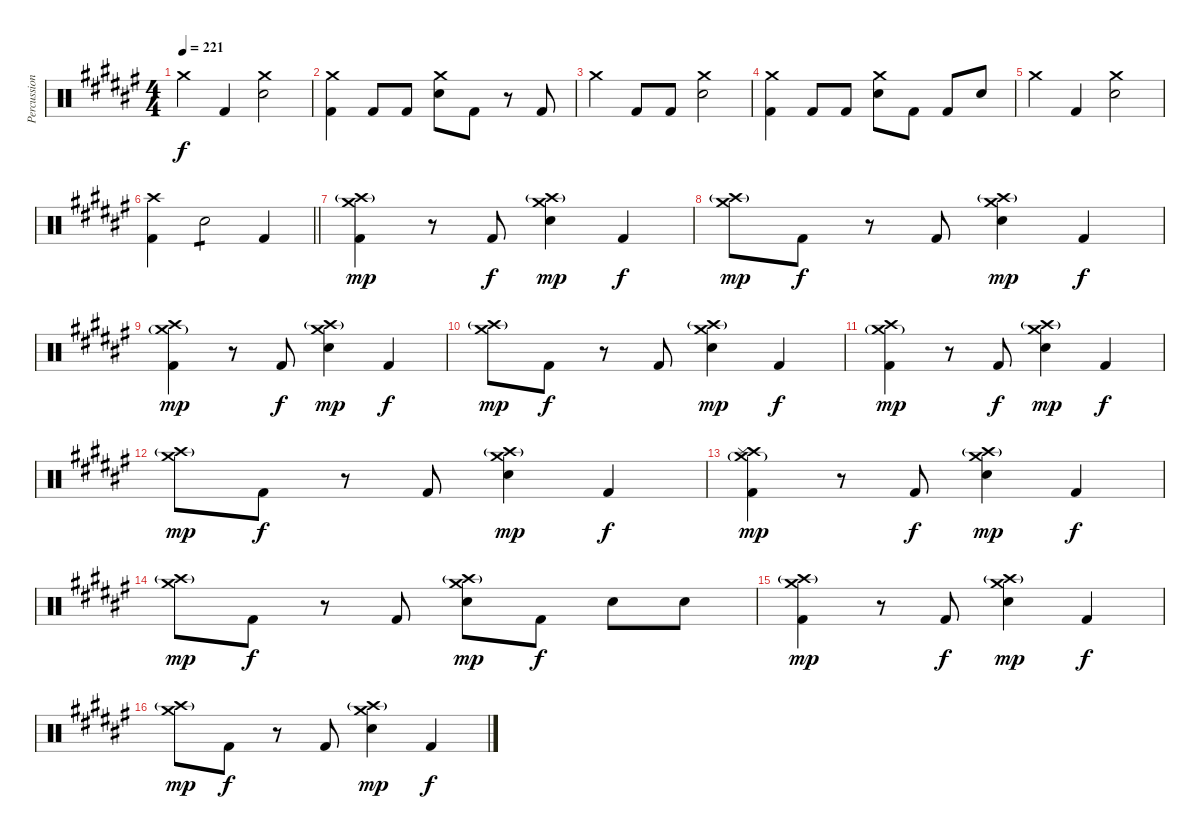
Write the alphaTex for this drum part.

\track ("Percussions" "Percussion") {instrument percussion}
\staff {score}
\articulation defaults
\ts (4 4)
\tempo 221
\clef neutral
\ks d#minor "Crash medium (hit)".4{dy f} "Kick (hit) 2".4
("Crash medium (hit)" "Electric Snare (hit)").2 |
("Crash medium (hit)" "Kick (hit) 2").4 "Kick (hit) 2".8 "Kick (hit) 2".8 ("Crash medium (hit)" "Electric Snare (hit)").8 "Kick (hit) 2".8 r.8 "Kick (hit) 2".8 |
"Crash medium (hit)".4 "Kick (hit) 2".8 "Kick (hit) 2".8 ("Crash medium (hit)" "Electric Snare (hit)").2 |
("Crash medium (hit)" "Kick (hit) 2").4 "Kick (hit) 2".8 "Kick (hit) 2".8 ("Crash medium (hit)" "Electric Snare (hit)").8 "Kick (hit) 2".8 "Kick (hit) 2".8 "Electric Snare (hit)".8 |
"Crash medium (hit)".4 "Kick (hit) 2".4 ("Crash medium (hit)" "Electric Snare (hit)").2 |
\barLineRight lightlight
("Crash high (hit)" "Kick (hit) 2").4 "Electric Snare (hit)".2{tp 1} "Kick (hit) 2".4 |
("Crash medium (hit)" "Crash high (hit)"{g} "Kick (hit) 2").4{dy mp} r.8 "Kick (hit) 2".8{dy f} ("Crash medium (hit)" "Crash high (hit)"{g} "Electric Snare (hit)").4{dy mp} "Kick (hit) 2".4{dy f} |
("Crash medium (hit)" "Crash high (hit)"{g}).8{dy mp} "Kick (hit) 2".8{dy f} r.8 "Kick (hit) 2".8 ("Crash medium (hit)" "Crash high (hit)"{g} "Electric Snare (hit)").4{dy mp} "Kick (hit) 2".4{dy f} |
("Crash medium (hit)"{g} "Crash high (hit)" "Kick (hit) 2").4{dy mp} r.8 "Kick (hit) 2".8{dy f} ("Crash medium (hit)" "Crash high (hit)"{g} "Electric Snare (hit)").4{dy mp} "Kick (hit) 2".4{dy f} |
("Crash medium (hit)" "Crash high (hit)"{g}).8{dy mp} "Kick (hit) 2".8{dy f} r.8 "Kick (hit) 2".8 ("Crash medium (hit)" "Crash high (hit)"{g} "Electric Snare (hit)").4{dy mp} "Kick (hit) 2".4{dy f} |
("Crash medium (hit)"{g} "Crash high (hit)" "Kick (hit) 2").4{dy mp} r.8 "Kick (hit) 2".8{dy f} ("Crash medium (hit)" "Crash high (hit)"{g} "Electric Snare (hit)").4{dy mp} "Kick (hit) 2".4{dy f} |
("Crash medium (hit)" "Crash high (hit)"{g}).8{dy mp} "Kick (hit) 2".8{dy f} r.8 "Kick (hit) 2".8 ("Crash medium (hit)" "Crash high (hit)"{g} "Electric Snare (hit)").4{dy mp} "Kick (hit) 2".4{dy f} |
("Crash medium (hit)"{g} "Crash high (hit)" "Splash (hit)" "Kick (hit) 2").4{dy mp} r.8 "Kick (hit) 2".8{dy f} ("Crash medium (hit)" "Crash high (hit)"{g} "Electric Snare (hit)").4{dy mp} "Kick (hit) 2".4{dy f} |
("Crash medium (hit)" "Crash high (hit)"{g}).8{dy mp} "Kick (hit) 2".8{dy f} r.8 "Kick (hit) 2".8 ("Crash medium (hit)" "Crash high (hit)"{g} "Electric Snare (hit)").8{dy mp} "Kick (hit) 2".8{dy f} "Electric Snare (hit)".8 "Electric Snare (hit)".8 |
("Crash medium (hit)" "Crash high (hit)"{g} "Kick (hit) 2").4{dy mp} r.8 "Kick (hit) 2".8{dy f} ("Crash medium (hit)" "Crash high (hit)"{g} "Electric Snare (hit)").4{dy mp} "Kick (hit) 2".4{dy f} |
("Crash medium (hit)" "Crash high (hit)"{g}).8{dy mp} "Kick (hit) 2".8{dy f} r.8 "Kick (hit) 2".8 ("Crash medium (hit)" "Crash high (hit)"{g} "Electric Snare (hit)").4{dy mp} "Kick (hit) 2".4{dy f}
